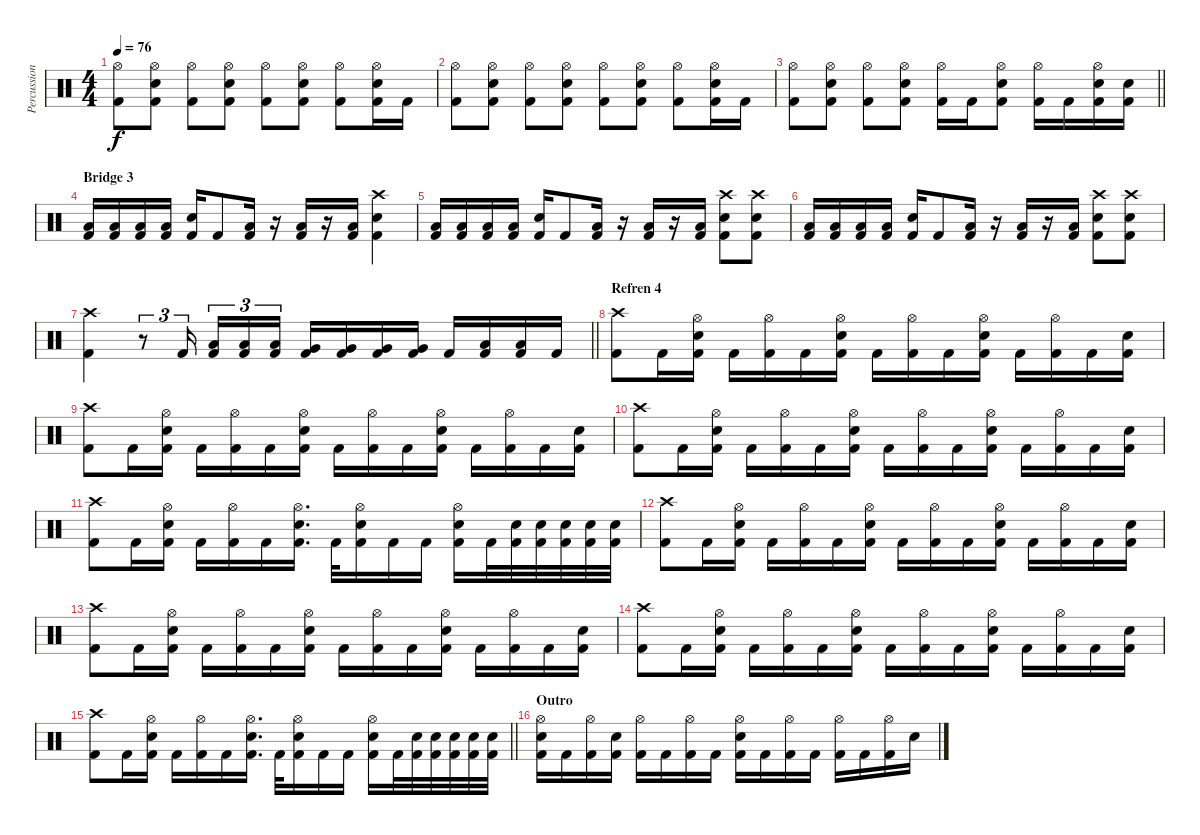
\track ("Percussion" "Percussion") {instrument percussion}
\staff {score}
\articulation defaults
\ts (4 4)
\tempo 76
\clef neutral
\ks c
("Hi-Hat (open)" "Kick (hit) 2").8{dy f} ("Hi-Hat (open)" "Kick (hit) 2" "Snare (hit) 2").8 ("Hi-Hat (open)" "Kick (hit) 2").8 ("Hi-Hat (open)" "Kick (hit) 2" "Snare (hit) 2").8 ("Hi-Hat (open)" "Kick (hit) 2").8 ("Hi-Hat (open)" "Kick (hit) 2" "Snare (hit) 2").8 ("Hi-Hat (open)" "Kick (hit) 2").8 ("Hi-Hat (open)" "Kick (hit) 2" "Snare (hit) 2").16 "Kick (hit) 2".16 |
("Hi-Hat (open)" "Kick (hit) 2").8 ("Hi-Hat (open)" "Kick (hit) 2" "Snare (hit) 2").8 ("Hi-Hat (open)" "Kick (hit) 2").8 ("Hi-Hat (open)" "Kick (hit) 2" "Snare (hit) 2").8 ("Hi-Hat (open)" "Kick (hit) 2").8 ("Hi-Hat (open)" "Kick (hit) 2" "Snare (hit) 2").8 ("Hi-Hat (open)" "Kick (hit) 2").8 ("Hi-Hat (open)" "Kick (hit) 2" "Snare (hit) 2").16 "Kick (hit) 2".16 |
\barLineRight lightlight
("Hi-Hat (open)" "Kick (hit) 2").8 ("Hi-Hat (open)" "Kick (hit) 2" "Snare (hit) 2").8 ("Hi-Hat (open)" "Kick (hit) 2").8 ("Hi-Hat (open)" "Kick (hit) 2" "Snare (hit) 2").8 ("Hi-Hat (open)" "Kick (hit) 2").16 "Kick (hit) 2".16 ("Hi-Hat (open)" "Kick (hit) 2" "Snare (hit) 2").8 ("Hi-Hat (open)" "Kick (hit) 2").16 "Kick (hit) 2".16 ("Hi-Hat (open)" "Kick (hit) 2" "Snare (hit) 2").16 ("Kick (hit) 2" "Snare (hit) 2").16 |
\section ("" "Bridge 3")
("Kick (hit) 2" "Low Tom (hit)").16 ("Kick (hit) 2" "Low Tom (hit)").16 ("Kick (hit) 2" "Low Tom (hit)").16 ("Kick (hit) 2" "Low Tom (hit)").16 ("Kick (hit) 2" "Snare (hit) 2").16 "Kick (hit) 2".8 ("Low Tom (hit)" "Kick (hit) 2").16 r.16 ("Low Tom (hit)" "Kick (hit) 2").16 r.16 ("Low Tom (hit)" "Kick (hit) 2").16 ("Crash high (hit)" "Snare (hit) 2" "Kick (hit) 2").4 |
("Kick (hit) 2" "Low Tom (hit)").16 ("Kick (hit) 2" "Low Tom (hit)").16 ("Kick (hit) 2" "Low Tom (hit)").16 ("Kick (hit) 2" "Low Tom (hit)").16 ("Snare (hit) 2" "Kick (hit) 2").16 "Kick (hit) 2".8 ("Low Tom (hit)" "Kick (hit) 2").16 r.16 ("Low Tom (hit)" "Kick (hit) 2").16 r.16 ("Low Tom (hit)" "Kick (hit) 2").16 ("Crash high (hit)" "Snare (hit) 2" "Kick (hit) 2").8 ("Crash high (hit)" "Snare (hit) 2" "Kick (hit) 2").8 |
("Kick (hit) 2" "Low Tom (hit)").16 ("Kick (hit) 2" "Low Tom (hit)").16 ("Kick (hit) 2" "Low Tom (hit)").16 ("Kick (hit) 2" "Low Tom (hit)").16 ("Snare (hit) 2" "Kick (hit) 2").16 "Kick (hit) 2".8 ("Low Tom (hit)" "Kick (hit) 2").16 r.16 ("Low Tom (hit)" "Kick (hit) 2").16 r.16 ("Low Tom (hit)" "Kick (hit) 2").16 ("Crash high (hit)" "Snare (hit) 2" "Kick (hit) 2").8 ("Crash high (hit)" "Snare (hit) 2" "Kick (hit) 2").8 |
\barLineRight lightlight
("Crash high (hit)" "Kick (hit) 2").4 r.8{tu (3 2)} "Kick (hit) 2".16{tu (3 2) beam splitsecondary} ("Low Tom (hit)" "Kick (hit) 2").16{tu (3 2)} ("Low Tom (hit)" "Kick (hit) 2").16{tu (3 2)} ("Low Tom (hit)" "Kick (hit) 2").16{tu (3 2)} ("Very Low Tom (hit)" "Kick (hit) 2").16 ("Very Low Tom (hit)" "Kick (hit) 2").16 ("Very Low Tom (hit)" "Kick (hit) 2").16 ("Very Low Tom (hit)" "Kick (hit) 2").16 "Kick (hit) 2".16 ("Low Floor Tom (hit)" "Kick (hit) 2").16 ("Low Floor Tom (hit)" "Kick (hit) 2").16 "Kick (hit) 2".16 |
\section ("" "Refren 4")
("Crash high (hit)" "Kick (hit) 2").8 "Kick (hit) 2".16 ("Hi-Hat (open)" "Snare (hit) 2" "Kick (hit) 2").16 "Kick (hit) 2".16 ("Hi-Hat (open)" "Kick (hit) 2").16 "Kick (hit) 2".16 ("Hi-Hat (open)" "Snare (hit) 2" "Kick (hit) 2").16 "Kick (hit) 2".16 ("Hi-Hat (open)" "Kick (hit) 2").16 "Kick (hit) 2".16 ("Hi-Hat (open)" "Snare (hit) 2" "Kick (hit) 2").16 "Kick (hit) 2".16 ("Hi-Hat (open)" "Kick (hit) 2").16 "Kick (hit) 2".16 ("Snare (hit) 2" "Kick (hit) 2").16 |
("Crash high (hit)" "Kick (hit) 2").8 "Kick (hit) 2".16 ("Hi-Hat (open)" "Snare (hit) 2" "Kick (hit) 2").16 "Kick (hit) 2".16 ("Hi-Hat (open)" "Kick (hit) 2").16 "Kick (hit) 2".16 ("Hi-Hat (open)" "Snare (hit) 2" "Kick (hit) 2").16 "Kick (hit) 2".16 ("Hi-Hat (open)" "Kick (hit) 2").16 "Kick (hit) 2".16 ("Hi-Hat (open)" "Snare (hit) 2" "Kick (hit) 2").16 "Kick (hit) 2".16 ("Hi-Hat (open)" "Kick (hit) 2").16 "Kick (hit) 2".16 ("Snare (hit) 2" "Kick (hit) 2").16 |
("Crash high (hit)" "Kick (hit) 2").8 "Kick (hit) 2".16 ("Hi-Hat (open)" "Snare (hit) 2" "Kick (hit) 2").16 "Kick (hit) 2".16 ("Hi-Hat (open)" "Kick (hit) 2").16 "Kick (hit) 2".16 ("Hi-Hat (open)" "Snare (hit) 2" "Kick (hit) 2").16 "Kick (hit) 2".16 ("Hi-Hat (open)" "Kick (hit) 2").16 "Kick (hit) 2".16 ("Hi-Hat (open)" "Snare (hit) 2" "Kick (hit) 2").16 "Kick (hit) 2".16 ("Hi-Hat (open)" "Kick (hit) 2").16 "Kick (hit) 2".16 ("Snare (hit) 2" "Kick (hit) 2").16 |
("Crash high (hit)" "Kick (hit) 2").8 "Kick (hit) 2".16 ("Hi-Hat (open)" "Snare (hit) 2" "Kick (hit) 2").16 "Kick (hit) 2".16 ("Hi-Hat (open)" "Kick (hit) 2").16 "Kick (hit) 2".16 ("Hi-Hat (open)" "Snare (hit) 2" "Kick (hit) 2").16{d} "Kick (hit) 2".32 ("Hi-Hat (open)" "Snare (hit) 2" "Kick (hit) 2").16 "Kick (hit) 2".16 "Kick (hit) 2".16 ("Hi-Hat (open)" "Snare (hit) 2" "Kick (hit) 2").16 "Kick (hit) 2".32 ("Snare (hit) 2" "Kick (hit) 2").32 ("Snare (hit) 2" "Kick (hit) 2").32 ("Snare (hit) 2" "Kick (hit) 2").32 ("Snare (hit) 2" "Kick (hit) 2").32 ("Snare (hit) 2" "Kick (hit) 2").32 |
("Crash high (hit)" "Kick (hit) 2").8 "Kick (hit) 2".16 ("Hi-Hat (open)" "Snare (hit) 2" "Kick (hit) 2").16 "Kick (hit) 2".16 ("Hi-Hat (open)" "Kick (hit) 2").16 "Kick (hit) 2".16 ("Hi-Hat (open)" "Snare (hit) 2" "Kick (hit) 2").16 "Kick (hit) 2".16 ("Hi-Hat (open)" "Kick (hit) 2").16 "Kick (hit) 2".16 ("Hi-Hat (open)" "Snare (hit) 2" "Kick (hit) 2").16 "Kick (hit) 2".16 ("Hi-Hat (open)" "Kick (hit) 2").16 "Kick (hit) 2".16 ("Snare (hit) 2" "Kick (hit) 2").16 |
("Crash high (hit)" "Kick (hit) 2").8 "Kick (hit) 2".16 ("Hi-Hat (open)" "Snare (hit) 2" "Kick (hit) 2").16 "Kick (hit) 2".16 ("Hi-Hat (open)" "Kick (hit) 2").16 "Kick (hit) 2".16 ("Hi-Hat (open)" "Snare (hit) 2" "Kick (hit) 2").16 "Kick (hit) 2".16 ("Hi-Hat (open)" "Kick (hit) 2").16 "Kick (hit) 2".16 ("Hi-Hat (open)" "Snare (hit) 2" "Kick (hit) 2").16 "Kick (hit) 2".16 ("Hi-Hat (open)" "Kick (hit) 2").16 "Kick (hit) 2".16 ("Snare (hit) 2" "Kick (hit) 2").16 |
("Crash high (hit)" "Kick (hit) 2").8 "Kick (hit) 2".16 ("Hi-Hat (open)" "Snare (hit) 2" "Kick (hit) 2").16 "Kick (hit) 2".16 ("Hi-Hat (open)" "Kick (hit) 2").16 "Kick (hit) 2".16 ("Hi-Hat (open)" "Snare (hit) 2" "Kick (hit) 2").16 "Kick (hit) 2".16 ("Hi-Hat (open)" "Kick (hit) 2").16 "Kick (hit) 2".16 ("Hi-Hat (open)" "Snare (hit) 2" "Kick (hit) 2").16 "Kick (hit) 2".16 ("Hi-Hat (open)" "Kick (hit) 2").16 "Kick (hit) 2".16 ("Snare (hit) 2" "Kick (hit) 2").16 |
\barLineRight lightlight
("Crash high (hit)" "Kick (hit) 2").8 "Kick (hit) 2".16 ("Hi-Hat (open)" "Snare (hit) 2" "Kick (hit) 2").16 "Kick (hit) 2".16 ("Hi-Hat (open)" "Kick (hit) 2").16 "Kick (hit) 2".16 ("Hi-Hat (open)" "Snare (hit) 2" "Kick (hit) 2").16{d} "Kick (hit) 2".32 ("Hi-Hat (open)" "Snare (hit) 2" "Kick (hit) 2").16 "Kick (hit) 2".16 "Kick (hit) 2".16 ("Hi-Hat (open)" "Snare (hit) 2" "Kick (hit) 2").16 "Kick (hit) 2".32 ("Snare (hit) 2" "Kick (hit) 2").32 ("Snare (hit) 2" "Kick (hit) 2").32 ("Snare (hit) 2" "Kick (hit) 2").32 ("Snare (hit) 2" "Kick (hit) 2").32 ("Snare (hit) 2" "Kick (hit) 2").32 |
\section ("" "Outro")
("Hi-Hat (open)" "Kick (hit) 2" "Snare (hit) 2").16 "Kick (hit) 2".16 ("Hi-Hat (open)" "Kick (hit) 2").16 ("Kick (hit) 2" "Snare (hit) 2").16 ("Hi-Hat (open)" "Kick (hit) 2").16 "Kick (hit) 2".16 ("Hi-Hat (open)" "Kick (hit) 2").16 "Kick (hit) 2".16 ("Hi-Hat (open)" "Kick (hit) 2" "Snare (hit) 2").16 "Kick (hit) 2".16 ("Hi-Hat (open)" "Kick (hit) 2").16 "Kick (hit) 2".16 ("Hi-Hat (open)" "Kick (hit) 2").16 "Kick (hit) 2".16 ("Hi-Hat (open)" "Kick (hit) 2").16 "Snare (hit) 2".16
